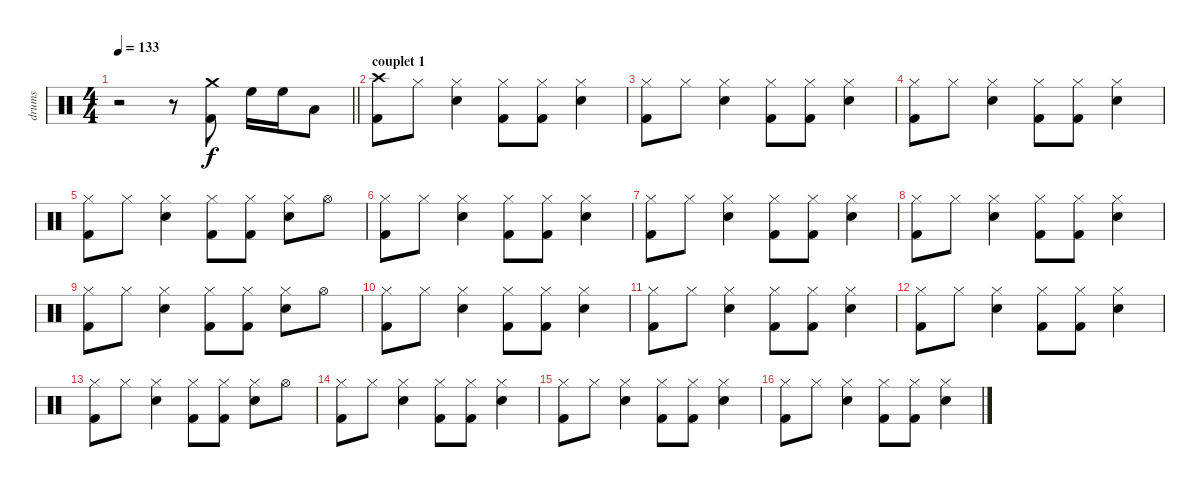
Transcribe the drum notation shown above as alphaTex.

\track ("drums" "drums") {instrument percussion}
\staff {score}
\articulation defaults
\ts (4 4)
\tempo 133
\clef neutral
\barLineRight lightlight
\ks c
r.2{dy f} r.8 ("Crash medium (hit)" "Kick (hit) 2").8 "High Floor Tom (hit)".16 "High Floor Tom (hit)".16 "Low Tom (hit)".8 |
\section ("" "couplet 1")
("Crash high (hit)" "Kick (hit) 2").8 "Hi-Hat (closed)".8 ("Hi-Hat (closed)" "Snare (hit) 2").4 ("Hi-Hat (closed)" "Kick (hit) 2").8 ("Hi-Hat (closed)" "Kick (hit) 2").8 ("Hi-Hat (closed)" "Snare (hit) 2").4 |
("Hi-Hat (closed)" "Kick (hit) 2").8 "Hi-Hat (closed)".8 ("Hi-Hat (closed)" "Snare (hit) 2").4 ("Hi-Hat (closed)" "Kick (hit) 2").8 ("Hi-Hat (closed)" "Kick (hit) 2").8 ("Hi-Hat (closed)" "Snare (hit) 2").4 |
("Hi-Hat (closed)" "Kick (hit) 2").8 "Hi-Hat (closed)".8 ("Hi-Hat (closed)" "Snare (hit) 2").4 ("Hi-Hat (closed)" "Kick (hit) 2").8 ("Hi-Hat (closed)" "Kick (hit) 2").8 ("Hi-Hat (closed)" "Snare (hit) 2").4 |
("Hi-Hat (closed)" "Kick (hit) 2").8 "Hi-Hat (closed)".8 ("Hi-Hat (closed)" "Snare (hit) 2").4 ("Hi-Hat (closed)" "Kick (hit) 2").8 ("Hi-Hat (closed)" "Kick (hit) 2").8 ("Hi-Hat (closed)" "Snare (hit) 2").8 "Hi-Hat (open)".8 |
("Hi-Hat (closed)" "Kick (hit) 2").8 "Hi-Hat (closed)".8 ("Hi-Hat (closed)" "Snare (hit) 2").4 ("Hi-Hat (closed)" "Kick (hit) 2").8 ("Hi-Hat (closed)" "Kick (hit) 2").8 ("Hi-Hat (closed)" "Snare (hit) 2").4 |
("Hi-Hat (closed)" "Kick (hit) 2").8 "Hi-Hat (closed)".8 ("Hi-Hat (closed)" "Snare (hit) 2").4 ("Hi-Hat (closed)" "Kick (hit) 2").8 ("Hi-Hat (closed)" "Kick (hit) 2").8 ("Hi-Hat (closed)" "Snare (hit) 2").4 |
("Hi-Hat (closed)" "Kick (hit) 2").8 "Hi-Hat (closed)".8 ("Hi-Hat (closed)" "Snare (hit) 2").4 ("Hi-Hat (closed)" "Kick (hit) 2").8 ("Hi-Hat (closed)" "Kick (hit) 2").8 ("Hi-Hat (closed)" "Snare (hit) 2").4 |
("Hi-Hat (closed)" "Kick (hit) 2").8 "Hi-Hat (closed)".8 ("Hi-Hat (closed)" "Snare (hit) 2").4 ("Hi-Hat (closed)" "Kick (hit) 2").8 ("Hi-Hat (closed)" "Kick (hit) 2").8 ("Hi-Hat (closed)" "Snare (hit) 2").8 "Hi-Hat (open)".8 |
("Hi-Hat (closed)" "Kick (hit) 2").8 "Hi-Hat (closed)".8 ("Hi-Hat (closed)" "Snare (hit) 2").4 ("Hi-Hat (closed)" "Kick (hit) 2").8 ("Hi-Hat (closed)" "Kick (hit) 2").8 ("Hi-Hat (closed)" "Snare (hit) 2").4 |
("Hi-Hat (closed)" "Kick (hit) 2").8 "Hi-Hat (closed)".8 ("Hi-Hat (closed)" "Snare (hit) 2").4 ("Hi-Hat (closed)" "Kick (hit) 2").8 ("Hi-Hat (closed)" "Kick (hit) 2").8 ("Hi-Hat (closed)" "Snare (hit) 2").4 |
("Hi-Hat (closed)" "Kick (hit) 2").8 "Hi-Hat (closed)".8 ("Hi-Hat (closed)" "Snare (hit) 2").4 ("Hi-Hat (closed)" "Kick (hit) 2").8 ("Hi-Hat (closed)" "Kick (hit) 2").8 ("Hi-Hat (closed)" "Snare (hit) 2").4 |
("Hi-Hat (closed)" "Kick (hit) 2").8 "Hi-Hat (closed)".8 ("Hi-Hat (closed)" "Snare (hit) 2").4 ("Hi-Hat (closed)" "Kick (hit) 2").8 ("Hi-Hat (closed)" "Kick (hit) 2").8 ("Hi-Hat (closed)" "Snare (hit) 2").8 "Hi-Hat (open)".8 |
("Hi-Hat (closed)" "Kick (hit) 2").8 "Hi-Hat (closed)".8 ("Hi-Hat (closed)" "Snare (hit) 2").4 ("Hi-Hat (closed)" "Kick (hit) 2").8 ("Hi-Hat (closed)" "Kick (hit) 2").8 ("Hi-Hat (closed)" "Snare (hit) 2").4 |
("Hi-Hat (closed)" "Kick (hit) 2").8 "Hi-Hat (closed)".8 ("Hi-Hat (closed)" "Snare (hit) 2").4 ("Hi-Hat (closed)" "Kick (hit) 2").8 ("Hi-Hat (closed)" "Kick (hit) 2").8 ("Hi-Hat (closed)" "Snare (hit) 2").4 |
("Hi-Hat (closed)" "Kick (hit) 2").8 "Hi-Hat (closed)".8 ("Hi-Hat (closed)" "Snare (hit) 2").4 ("Hi-Hat (closed)" "Kick (hit) 2").8 ("Hi-Hat (closed)" "Kick (hit) 2").8 ("Hi-Hat (closed)" "Snare (hit) 2").4
